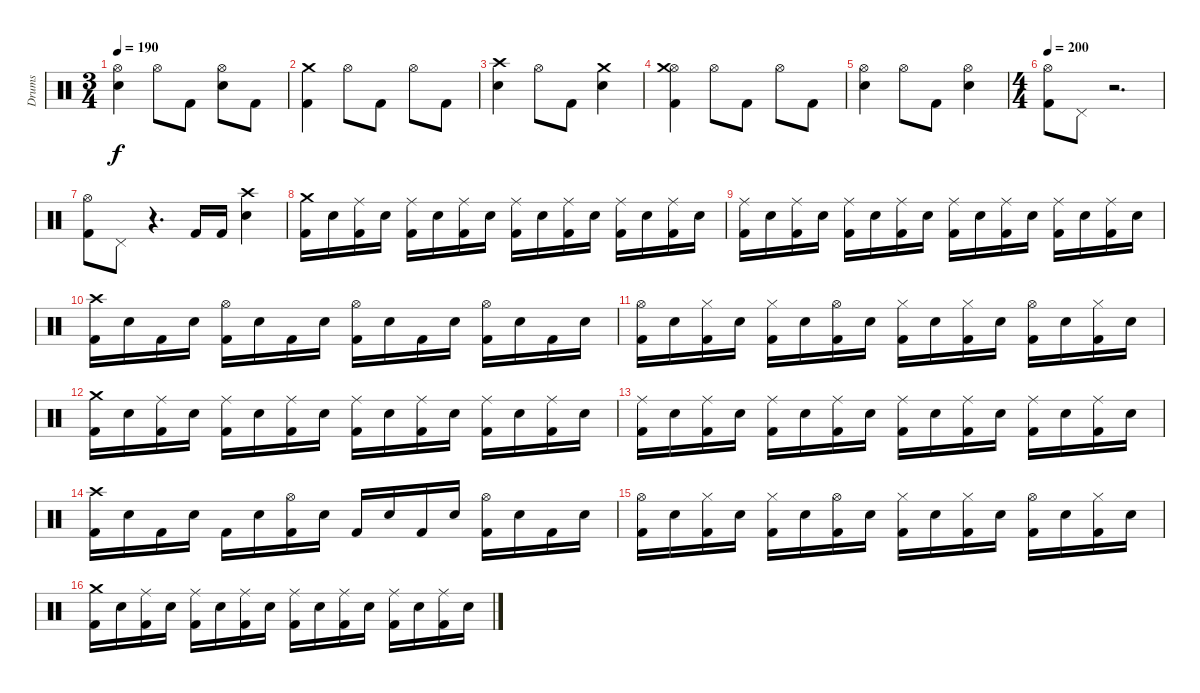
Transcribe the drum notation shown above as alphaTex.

\track ("Drums" "Drums") {instrument percussion}
\staff {score}
\articulation defaults
\ts (3 4)
\tempo 190
\clef neutral
\ks c
("Electric Snare (hit)" "Hi-Hat (open)").4{dy f} "Hi-Hat (open)".8 "Kick (hit) 2".8 ("Electric Snare (hit)" "Hi-Hat (open)").8 "Kick (hit) 2".8 |
("Kick (hit) 2" "Crash medium (hit)").4 "Hi-Hat (open)".8 "Kick (hit) 2".8 "Hi-Hat (open)".8 "Kick (hit) 2".8 |
("Electric Snare (hit)" "Crash high (hit)").4 "Hi-Hat (open)".8 "Kick (hit) 2".8 ("Electric Snare (hit)" "Crash medium (hit)").4 |
("Kick (hit) 2" "Hi-Hat (open)" "Crash medium (hit)").4 "Hi-Hat (open)".8 "Kick (hit) 2".8 "Hi-Hat (open)".8 "Kick (hit) 2".8 |
("Electric Snare (hit)" "Hi-Hat (open)").4 "Hi-Hat (open)".8 "Kick (hit) 2".8 ("Electric Snare (hit)" "Hi-Hat (open)").4 |
\ts (4 4)
\tempo 200
("Kick (hit) 2" "Hi-Hat (open)").8 "Pedal Hi-Hat (hit)".8 r.2{d} |
("Kick (hit) 2" "Hi-Hat (open)").8 "Pedal Hi-Hat (hit)".8 r.4{d} "Kick (hit) 2".16 "Kick (hit) 2".16 ("Snare (hit) 2" "Crash high (hit)").4 |
("Kick (hit) 2" "Crash medium (hit)").16 "Snare (hit) 2".16 ("Kick (hit) 2" "Ride (middle)").16 "Snare (hit) 2".16 ("Kick (hit) 2" "Ride (middle)").16 "Snare (hit) 2".16 ("Kick (hit) 2" "Ride (middle)").16 "Snare (hit) 2".16 ("Kick (hit) 2" "Ride (middle)").16 "Snare (hit) 2".16 ("Kick (hit) 2" "Ride (middle)").16 "Snare (hit) 2".16 ("Kick (hit) 2" "Ride (middle)").16 "Snare (hit) 2".16 ("Kick (hit) 2" "Ride (middle)").16 "Snare (hit) 2".16 |
("Kick (hit) 2" "Ride (middle)").16 "Snare (hit) 2".16 ("Kick (hit) 2" "Ride (middle)").16 "Snare (hit) 2".16 ("Kick (hit) 2" "Ride (middle)").16 "Snare (hit) 2".16 ("Kick (hit) 2" "Ride (middle)").16 "Snare (hit) 2".16 ("Kick (hit) 2" "Ride (middle)").16 "Snare (hit) 2".16 ("Kick (hit) 2" "Ride (middle)").16 "Snare (hit) 2".16 ("Kick (hit) 2" "Ride (middle)").16 "Snare (hit) 2".16 ("Kick (hit) 2" "Ride (middle)").16 "Snare (hit) 2".16 |
("Kick (hit) 2" "Crash high (hit)").16 "Snare (hit) 2".16 "Kick (hit) 2".16 "Snare (hit) 2".16 ("Kick (hit) 2" "Hi-Hat (open)").16 "Snare (hit) 2".16 "Kick (hit) 2".16 "Snare (hit) 2".16 ("Kick (hit) 2" "Hi-Hat (open)").16 "Snare (hit) 2".16 "Kick (hit) 2".16 "Snare (hit) 2".16 ("Kick (hit) 2" "Hi-Hat (open)").16 "Snare (hit) 2".16 "Kick (hit) 2".16 "Snare (hit) 2".16 |
("Kick (hit) 2" "Hi-Hat (open)").16 "Snare (hit) 2".16 ("Kick (hit) 2" "Hi-Hat (closed)").16 "Snare (hit) 2".16 ("Kick (hit) 2" "Hi-Hat (closed)").16 "Snare (hit) 2".16 ("Kick (hit) 2" "Hi-Hat (open)").16 "Snare (hit) 2".16 ("Kick (hit) 2" "Hi-Hat (closed)").16 "Snare (hit) 2".16 ("Kick (hit) 2" "Hi-Hat (closed)").16 "Snare (hit) 2".16 ("Kick (hit) 2" "Hi-Hat (open)").16 "Snare (hit) 2".16 ("Kick (hit) 2" "Hi-Hat (closed)").16 "Snare (hit) 2".16 |
("Kick (hit) 2" "Crash medium (hit)").16 "Snare (hit) 2".16 ("Kick (hit) 2" "Ride (middle)").16 "Snare (hit) 2".16 ("Kick (hit) 2" "Ride (middle)").16 "Snare (hit) 2".16 ("Kick (hit) 2" "Ride (middle)").16 "Snare (hit) 2".16 ("Kick (hit) 2" "Ride (middle)").16 "Snare (hit) 2".16 ("Kick (hit) 2" "Ride (middle)").16 "Snare (hit) 2".16 ("Kick (hit) 2" "Ride (middle)").16 "Snare (hit) 2".16 ("Kick (hit) 2" "Ride (middle)").16 "Snare (hit) 2".16 |
("Kick (hit) 2" "Ride (middle)").16 "Snare (hit) 2".16 ("Kick (hit) 2" "Ride (middle)").16 "Snare (hit) 2".16 ("Kick (hit) 2" "Ride (middle)").16 "Snare (hit) 2".16 ("Kick (hit) 2" "Ride (middle)").16 "Snare (hit) 2".16 ("Kick (hit) 2" "Ride (middle)").16 "Snare (hit) 2".16 ("Kick (hit) 2" "Ride (middle)").16 "Snare (hit) 2".16 ("Kick (hit) 2" "Ride (middle)").16 "Snare (hit) 2".16 ("Kick (hit) 2" "Ride (middle)").16 "Snare (hit) 2".16 |
("Kick (hit) 2" "Crash high (hit)").16 "Snare (hit) 2".16 "Kick (hit) 2".16 "Snare (hit) 2".16 "Kick (hit) 2".16 "Snare (hit) 2".16 ("Kick (hit) 2" "Hi-Hat (open)").16 "Snare (hit) 2".16 "Kick (hit) 2".16 "Snare (hit) 2".16 "Kick (hit) 2".16 "Snare (hit) 2".16 ("Kick (hit) 2" "Hi-Hat (open)").16 "Snare (hit) 2".16 "Kick (hit) 2".16 "Snare (hit) 2".16 |
("Kick (hit) 2" "Hi-Hat (open)").16 "Snare (hit) 2".16 ("Kick (hit) 2" "Hi-Hat (closed)").16 "Snare (hit) 2".16 ("Kick (hit) 2" "Hi-Hat (closed)").16 "Snare (hit) 2".16 ("Kick (hit) 2" "Hi-Hat (open)").16 "Snare (hit) 2".16 ("Kick (hit) 2" "Hi-Hat (closed)").16 "Snare (hit) 2".16 ("Kick (hit) 2" "Hi-Hat (closed)").16 "Snare (hit) 2".16 ("Kick (hit) 2" "Hi-Hat (open)").16 "Snare (hit) 2".16 ("Kick (hit) 2" "Hi-Hat (closed)").16 "Snare (hit) 2".16 |
("Kick (hit) 2" "Crash medium (hit)").16 "Snare (hit) 2".16 ("Kick (hit) 2" "Ride (middle)").16 "Snare (hit) 2".16 ("Kick (hit) 2" "Ride (middle)").16 "Snare (hit) 2".16 ("Kick (hit) 2" "Ride (middle)").16 "Snare (hit) 2".16 ("Kick (hit) 2" "Ride (middle)").16 "Snare (hit) 2".16 ("Kick (hit) 2" "Ride (middle)").16 "Snare (hit) 2".16 ("Kick (hit) 2" "Ride (middle)").16 "Snare (hit) 2".16 ("Kick (hit) 2" "Ride (middle)").16 "Snare (hit) 2".16
